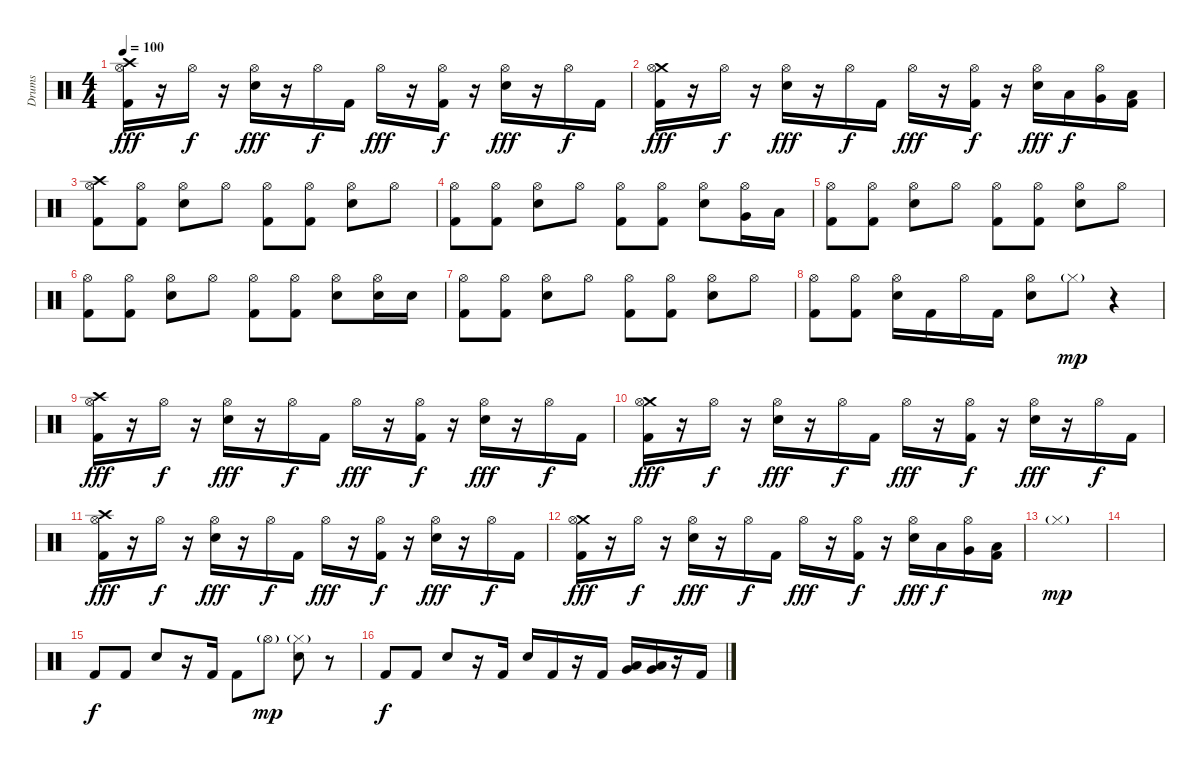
\track ("Drums" "Drums") {instrument percussion}
\staff {score}
\articulation defaults
\ts (4 4)
\tempo 100
\clef neutral
\ks c
("Crash high (hit)" "Hi-Hat (open)" "Kick (hit) 2").16{dy fff} r.16 "Hi-Hat (open)".16{dy f} r.16 ("Hi-Hat (open)" "Electric Snare (hit)").16{dy fff} r.16 "Hi-Hat (open)".16{dy f} "Kick (hit) 2".16 "Hi-Hat (open)".16{dy fff} r.16 ("Hi-Hat (open)" "Kick (hit) 2").16{dy f} r.16 ("Hi-Hat (open)" "Electric Snare (hit)").16{dy fff} r.16 "Hi-Hat (open)".16{dy f} "Kick (hit) 2".16 |
("Crash medium (hit)" "Hi-Hat (open)" "Kick (hit) 2").16{dy fff} r.16 "Hi-Hat (open)".16{dy f} r.16 ("Hi-Hat (open)" "Electric Snare (hit)").16{dy fff} r.16 "Hi-Hat (open)".16{dy f} "Kick (hit) 2".16 "Hi-Hat (open)".16{dy fff} r.16 ("Hi-Hat (open)" "Kick (hit) 2").16{dy f} r.16 ("Hi-Hat (open)" "Electric Snare (hit)").16{dy fff} "Low Tom (hit)".16{dy f} ("Hi-Hat (open)" "Very Low Tom (hit)").16 ("Low Floor Tom (hit)" "Kick (hit) 2").16 |
("Crash high (hit)" "Hi-Hat (open)" "Kick (hit) 2").8 ("Hi-Hat (open)" "Kick (hit) 2").8 ("Hi-Hat (open)" "Electric Snare (hit)").8 "Hi-Hat (open)".8 ("Hi-Hat (open)" "Kick (hit) 2").8 ("Hi-Hat (open)" "Kick (hit) 2").8 ("Hi-Hat (open)" "Electric Snare (hit)").8 "Hi-Hat (open)".8 |
("Hi-Hat (open)" "Kick (hit) 2").8 ("Hi-Hat (open)" "Kick (hit) 2").8 ("Hi-Hat (open)" "Electric Snare (hit)").8 "Hi-Hat (open)".8 ("Hi-Hat (open)" "Kick (hit) 2").8 ("Hi-Hat (open)" "Kick (hit) 2").8 ("Hi-Hat (open)" "Electric Snare (hit)").8 ("Hi-Hat (open)" "Very Low Tom (hit)").16 "Low Floor Tom (hit)".16 |
("Hi-Hat (open)" "Kick (hit) 2").8 ("Hi-Hat (open)" "Kick (hit) 2").8 ("Hi-Hat (open)" "Electric Snare (hit)").8 "Hi-Hat (open)".8 ("Hi-Hat (open)" "Kick (hit) 2").8 ("Hi-Hat (open)" "Kick (hit) 2").8 ("Hi-Hat (open)" "Electric Snare (hit)").8 "Hi-Hat (open)".8 |
("Hi-Hat (open)" "Kick (hit) 2").8 ("Hi-Hat (open)" "Kick (hit) 2").8 ("Hi-Hat (open)" "Electric Snare (hit)").8 "Hi-Hat (open)".8 ("Hi-Hat (open)" "Kick (hit) 2").8 ("Hi-Hat (open)" "Kick (hit) 2").8 ("Hi-Hat (open)" "Electric Snare (hit)").8 ("Hi-Hat (open)" "Electric Snare (hit)").16 "Electric Snare (hit)".16 |
("Hi-Hat (open)" "Kick (hit) 2").8 ("Hi-Hat (open)" "Kick (hit) 2").8 ("Hi-Hat (open)" "Electric Snare (hit)").8 "Hi-Hat (open)".8 ("Hi-Hat (open)" "Kick (hit) 2").8 ("Hi-Hat (open)" "Kick (hit) 2").8 ("Hi-Hat (open)" "Electric Snare (hit)").8 "Hi-Hat (open)".8 |
("Hi-Hat (open)" "Kick (hit) 2").8 ("Hi-Hat (open)" "Kick (hit) 2").8 ("Hi-Hat (open)" "Electric Snare (hit)").16 "Kick (hit) 2".16 "Hi-Hat (open)".16 "Kick (hit) 2".16 ("Hi-Hat (open)" "Electric Snare (hit)").8 "Hi-Hat (closed)"{g}.8{dy mp} r.4 |
("Crash high (hit)" "Hi-Hat (open)" "Kick (hit) 2").16{dy fff} r.16 "Hi-Hat (open)".16{dy f} r.16 ("Hi-Hat (open)" "Electric Snare (hit)").16{dy fff} r.16 "Hi-Hat (open)".16{dy f} "Kick (hit) 2".16 "Hi-Hat (open)".16{dy fff} r.16 ("Hi-Hat (open)" "Kick (hit) 2").16{dy f} r.16 ("Hi-Hat (open)" "Electric Snare (hit)").16{dy fff} r.16 "Hi-Hat (open)".16{dy f} "Kick (hit) 2".16 |
("Crash medium (hit)" "Hi-Hat (open)" "Kick (hit) 2").16{dy fff} r.16 "Hi-Hat (open)".16{dy f} r.16 ("Hi-Hat (open)" "Electric Snare (hit)").16{dy fff} r.16 "Hi-Hat (open)".16{dy f} "Kick (hit) 2".16 "Hi-Hat (open)".16{dy fff} r.16 ("Hi-Hat (open)" "Kick (hit) 2").16{dy f} r.16 ("Hi-Hat (open)" "Electric Snare (hit)").16{dy fff} r.16 "Hi-Hat (open)".16{dy f} "Kick (hit) 2".16 |
("Crash high (hit)" "Hi-Hat (open)" "Kick (hit) 2").16{dy fff} r.16 "Hi-Hat (open)".16{dy f} r.16 ("Hi-Hat (open)" "Electric Snare (hit)").16{dy fff} r.16 "Hi-Hat (open)".16{dy f} "Kick (hit) 2".16 "Hi-Hat (open)".16{dy fff} r.16 ("Hi-Hat (open)" "Kick (hit) 2").16{dy f} r.16 ("Hi-Hat (open)" "Electric Snare (hit)").16{dy fff} r.16 "Hi-Hat (open)".16{dy f} "Kick (hit) 2".16 |
("Crash medium (hit)" "Hi-Hat (open)" "Kick (hit) 2").16{dy fff} r.16 "Hi-Hat (open)".16{dy f} r.16 ("Hi-Hat (open)" "Electric Snare (hit)").16{dy fff} r.16 "Hi-Hat (open)".16{dy f} "Kick (hit) 2".16 "Hi-Hat (open)".16{dy fff} r.16 ("Hi-Hat (open)" "Kick (hit) 2").16{dy f} r.16 ("Hi-Hat (open)" "Electric Snare (hit)").16{dy fff} "Low Tom (hit)".16{dy f} ("Hi-Hat (open)" "Very Low Tom (hit)").16 ("Low Floor Tom (hit)" "Kick (hit) 2").16 |
"Hi-Hat (closed)"{g}.1{dy mp} |
|
"Kick (hit) 2".8{dy f} "Kick (hit) 2".8 "Electric Snare (hit)".8 r.16 "Kick (hit) 2".16 "Kick (hit) 2".8 "Hi-Hat (open)"{g}.8{dy mp} ("Hi-Hat (closed)"{g} "Electric Snare (hit)").8 r.8 |
"Kick (hit) 2".8{dy f} "Kick (hit) 2".8 "Electric Snare (hit)".8 r.16 "Kick (hit) 2".16 "Electric Snare (hit)".16 "Kick (hit) 2".16 r.16 "Kick (hit) 2".16 ("Low Tom (hit)" "Very Low Tom (hit)").16 ("Very Low Tom (hit)" "Low Floor Tom (hit)").16 r.16 "Kick (hit) 2".16
